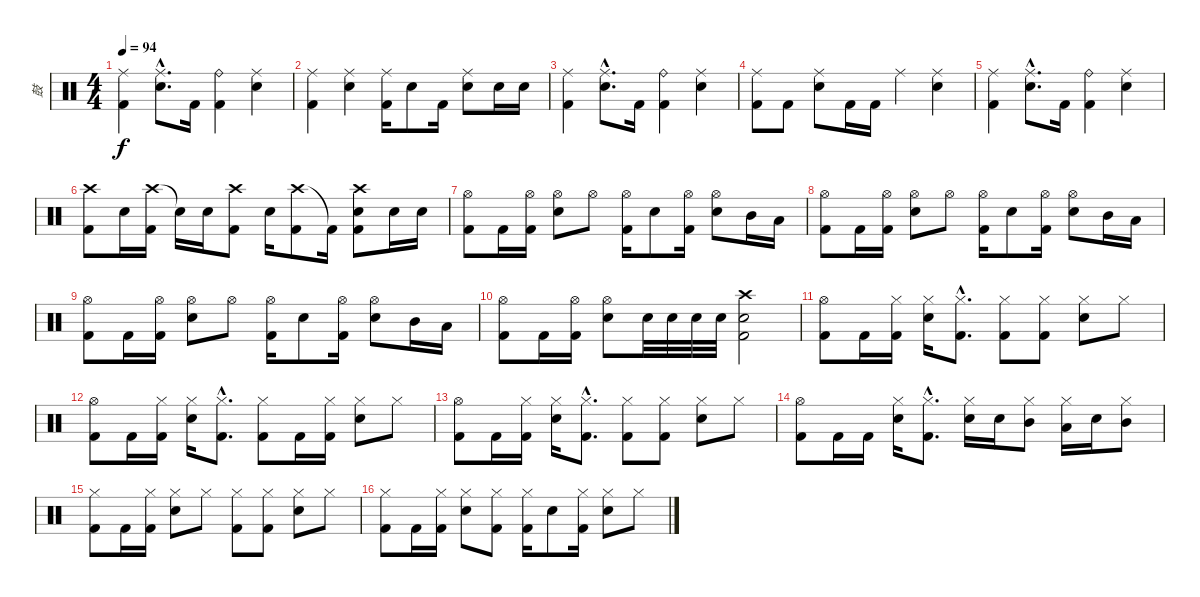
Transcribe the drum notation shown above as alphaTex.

\track ("鼓" "鼓") {instrument percussion}
\staff {score}
\articulation defaults
\ts (4 4)
\tempo 94
\clef neutral
\ks c
("Ride (middle)" "Kick (hit) 2").4{dy f} ("Ride (middle)"{hac} "Snare (hit) 2"{hac}).8{d} "Kick (hit) 2".16 ("Ride (bell)" "Kick (hit) 2").4 ("Ride (middle)" "Snare (hit) 2").4 |
("Ride (middle)" "Kick (hit) 2").4 ("Ride (middle)" "Snare (hit) 2").4 ("Ride (middle)" "Kick (hit) 2").16 "Snare (hit) 2".8 "Kick (hit) 2".16 ("Ride (middle)" "Snare (hit) 2").8 "Snare (hit) 2".16 "Snare (hit) 2".16 |
("Ride (middle)" "Kick (hit) 2").4 ("Ride (middle)"{hac} "Snare (hit) 2"{hac}).8{d} "Kick (hit) 2".16 ("Ride (bell)" "Kick (hit) 2").4 ("Ride (middle)" "Snare (hit) 2").4 |
("Ride (middle)" "Kick (hit) 2").8 "Kick (hit) 2".8 ("Ride (middle)" "Snare (hit) 2").8 "Kick (hit) 2".16 "Kick (hit) 2".16 "Ride (middle)".4 ("Ride (middle)" "Snare (hit) 2").4 |
("Ride (middle)" "Kick (hit) 2").4 ("Ride (middle)"{hac} "Snare (hit) 2"{hac}).8{d} "Kick (hit) 2".16 ("Ride (bell)" "Kick (hit) 2").4 ("Ride (middle)" "Snare (hit) 2").4 |
("Crash high (hit)" "Kick (hit) 2").8 "Snare (hit) 2".16 ("Crash high (hit)" "Kick (hit) 2").16 "Snare (hit)"{t}.16 "Snare (hit) 2".16 ("Crash high (hit)" "Kick (hit) 2").8 "Snare (hit) 2".16 ("Crash high (hit)" "Kick (hit) 2").8 "Kick (hit) 2"{t}.16 ("Crash high (hit)" "Snare (hit) 2" "Kick (hit) 2").8 "Snare (hit) 2".16 "Snare (hit) 2".16 |
("Hi-Hat (open)" "Kick (hit) 2").8 "Kick (hit) 2".16 ("Hi-Hat (open)" "Kick (hit) 2").16 ("Hi-Hat (open)" "Snare (hit) 2").8 "Hi-Hat (open)".8 ("Hi-Hat (open)" "Kick (hit) 2").16 "Snare (hit) 2".8 ("Hi-Hat (open)" "Kick (hit) 2").16 ("Hi-Hat (open)" "Snare (hit) 2").8 "Mid Tom (hit)".16 "Low Tom (hit)".16 |
("Hi-Hat (open)" "Kick (hit) 2").8 "Kick (hit) 2".16 ("Hi-Hat (open)" "Kick (hit) 2").16 ("Hi-Hat (open)" "Snare (hit) 2").8 "Hi-Hat (open)".8 ("Hi-Hat (open)" "Kick (hit) 2").16 "Snare (hit) 2".8 ("Hi-Hat (open)" "Kick (hit) 2").16 ("Hi-Hat (open)" "Snare (hit) 2").8 "Mid Tom (hit)".16 "Low Tom (hit)".16 |
("Hi-Hat (open)" "Kick (hit) 2").8 "Kick (hit) 2".16 ("Hi-Hat (open)" "Kick (hit) 2").16 ("Hi-Hat (open)" "Snare (hit) 2").8 "Hi-Hat (open)".8 ("Hi-Hat (open)" "Kick (hit) 2").16 "Snare (hit) 2".8 ("Hi-Hat (open)" "Kick (hit) 2").16 ("Hi-Hat (open)" "Snare (hit) 2").8 "Mid Tom (hit)".16 "Low Tom (hit)".16 |
("Hi-Hat (open)" "Kick (hit) 2").8 "Kick (hit) 2".16 ("Hi-Hat (open)" "Kick (hit) 2").16 ("Hi-Hat (open)" "Snare (hit) 2").8 "Snare (hit) 2".32 "Snare (hit) 2".32 "Snare (hit) 2".32 "Snare (hit) 2".32 ("Crash high (hit)" "Snare (hit) 2" "Kick (hit) 2").2 |
("Hi-Hat (open)" "Kick (hit) 2").8 "Kick (hit) 2".16 ("Hi-Hat (closed)" "Kick (hit) 2").16 ("Hi-Hat (closed)" "Snare (hit) 2").16 ("Hi-Hat (closed)"{hac} "Kick (hit) 2"{hac}).8{d} ("Hi-Hat (closed)" "Kick (hit) 2").8 ("Hi-Hat (closed)" "Kick (hit) 2").8 ("Hi-Hat (closed)" "Snare (hit) 2").8 "Hi-Hat (closed)".8 |
("Hi-Hat (open)" "Kick (hit) 2").8 "Kick (hit) 2".16 ("Hi-Hat (closed)" "Kick (hit) 2").16 ("Hi-Hat (closed)" "Snare (hit) 2").16 ("Hi-Hat (closed)"{hac} "Kick (hit) 2"{hac}).8{d} ("Hi-Hat (closed)" "Kick (hit) 2").8 "Kick (hit) 2".16 ("Hi-Hat (closed)" "Kick (hit) 2").16 ("Hi-Hat (closed)" "Snare (hit) 2").8 "Hi-Hat (closed)".8 |
("Hi-Hat (open)" "Kick (hit) 2").8 "Kick (hit) 2".16 ("Hi-Hat (closed)" "Kick (hit) 2").16 ("Hi-Hat (closed)" "Snare (hit) 2").16 ("Hi-Hat (closed)"{hac} "Kick (hit) 2"{hac}).8{d} ("Hi-Hat (closed)" "Kick (hit) 2").8 ("Hi-Hat (closed)" "Kick (hit) 2").8 ("Hi-Hat (closed)" "Snare (hit) 2").8 "Hi-Hat (closed)".8 |
("Hi-Hat (open)" "Kick (hit) 2").8 "Kick (hit) 2".16 "Kick (hit) 2".16 ("Hi-Hat (closed)" "Snare (hit) 2").16 ("Hi-Hat (closed)"{hac} "Kick (hit) 2"{hac}).8{d} ("Hi-Hat (closed)" "Snare (hit) 2").16 "Snare (hit) 2".16 ("Hi-Hat (closed)" "Mid Tom (hit)").8 ("Hi-Hat (closed)" "Low Tom (hit)").16 "Snare (hit) 2".16 ("Hi-Hat (closed)" "Mid Tom (hit)").8 |
("Hi-Hat (closed)" "Kick (hit) 2").8 "Kick (hit) 2".16 ("Hi-Hat (closed)" "Kick (hit) 2").16 ("Hi-Hat (closed)" "Snare (hit) 2").8 "Hi-Hat (closed)".8 ("Hi-Hat (closed)" "Kick (hit) 2").8 ("Hi-Hat (closed)" "Kick (hit) 2").8 ("Hi-Hat (closed)" "Snare (hit) 2").8 "Hi-Hat (closed)".8 |
("Hi-Hat (closed)" "Kick (hit) 2").8 "Kick (hit) 2".16 ("Hi-Hat (closed)" "Kick (hit) 2").16 ("Hi-Hat (closed)" "Snare (hit) 2").8 ("Hi-Hat (closed)" "Kick (hit) 2").8 ("Hi-Hat (closed)" "Kick (hit) 2").16 "Snare (hit) 2".8 ("Hi-Hat (closed)" "Kick (hit) 2").16 ("Hi-Hat (closed)" "Snare (hit) 2").8 "Hi-Hat (closed)".8
